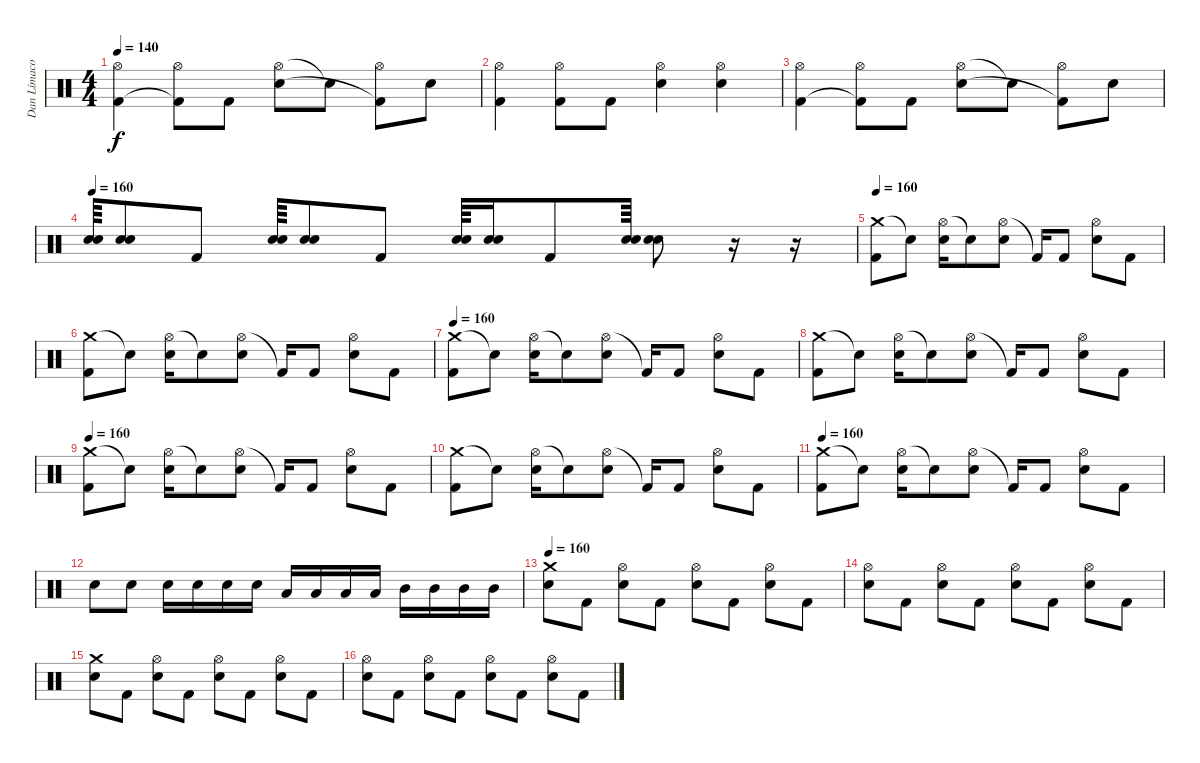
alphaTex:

\track ("Dan Límaco" "Dan Límaco") {instrument percussion}
\staff {score}
\articulation defaults
\ts (4 4)
\tempo 140
\clef neutral
\ks c
("Hi-Hat (open)" "Kick (hit) 2").4{dy f} ("Hi-Hat (open)" "Kick (hit) 2"{t}).8 "Kick (hit) 2".8 ("Hi-Hat (open)" "Snare (hit) 2").8 "Snare (hit) 2"{t}.8 ("Hi-Hat (open)" "Kick (hit) 2"{t}).8 "Snare (hit) 2".8 |
("Hi-Hat (open)" "Kick (hit) 2").4 ("Hi-Hat (open)" "Kick (hit) 2").8 "Kick (hit) 2".8 ("Hi-Hat (open)" "Snare (hit) 2").4 ("Hi-Hat (open)" "Snare (hit) 2").4 |
("Hi-Hat (open)" "Kick (hit) 2").4 ("Hi-Hat (open)" "Kick (hit) 2"{t}).8 "Kick (hit) 2".8 ("Hi-Hat (open)" "Snare (hit) 2").8 "Snare (hit) 2"{t}.8 ("Hi-Hat (open)" "Kick (hit) 2"{t}).8 "Snare (hit) 2".8 |
\tempo 160
("Snare (hit) 2" "Snare (hit) 2").64 ("Snare (hit) 2" "Snare (hit) 2").8 "Kick (hit) 2".8 ("Snare (hit) 2" "Snare (hit) 2").64 ("Snare (hit) 2" "Snare (hit) 2").8 "Kick (hit) 2".8 ("Snare (hit) 2" "Snare (hit) 2").64 ("Snare (hit) 2" "Snare (hit) 2").16 "Kick (hit) 2".8 ("Snare (hit) 2" "Snare (hit) 2").64 ("Snare (hit) 2" "Snare (hit) 2").8 r.16 r.16 |
\tempo 160
("Crash medium (hit)" "Kick (hit) 2").8 "Snare (hit) 2"{t}.8 ("Hi-Hat (open)" "Snare (hit) 2").16 "Snare (hit) 2"{t}.8 ("Hi-Hat (open)" "Snare (hit) 2").8 "Kick (hit) 2"{t}.16 "Kick (hit) 2".8 ("Hi-Hat (open)" "Snare (hit) 2").8 "Kick (hit) 2".8 |
("Crash medium (hit)" "Kick (hit) 2").8 "Snare (hit) 2"{t}.8 ("Hi-Hat (open)" "Snare (hit) 2").16 "Snare (hit) 2"{t}.8 ("Hi-Hat (open)" "Snare (hit) 2").8 "Kick (hit) 2"{t}.16 "Kick (hit) 2".8 ("Hi-Hat (open)" "Snare (hit) 2").8 "Kick (hit) 2".8 |
\tempo 160
("Crash medium (hit)" "Kick (hit) 2").8 "Snare (hit) 2"{t}.8 ("Hi-Hat (open)" "Snare (hit) 2").16 "Snare (hit) 2"{t}.8 ("Hi-Hat (open)" "Snare (hit) 2").8 "Kick (hit) 2"{t}.16 "Kick (hit) 2".8 ("Hi-Hat (open)" "Snare (hit) 2").8 "Kick (hit) 2".8 |
("Crash medium (hit)" "Kick (hit) 2").8 "Snare (hit) 2"{t}.8 ("Hi-Hat (open)" "Snare (hit) 2").16 "Snare (hit) 2"{t}.8 ("Hi-Hat (open)" "Snare (hit) 2").8 "Kick (hit) 2"{t}.16 "Kick (hit) 2".8 ("Hi-Hat (open)" "Snare (hit) 2").8 "Kick (hit) 2".8 |
\tempo 160
("Crash medium (hit)" "Kick (hit) 2").8 "Snare (hit) 2"{t}.8 ("Hi-Hat (open)" "Snare (hit) 2").16 "Snare (hit) 2"{t}.8 ("Hi-Hat (open)" "Snare (hit) 2").8 "Kick (hit) 2"{t}.16 "Kick (hit) 2".8 ("Hi-Hat (open)" "Snare (hit) 2").8 "Kick (hit) 2".8 |
("Crash medium (hit)" "Kick (hit) 2").8 "Snare (hit) 2"{t}.8 ("Hi-Hat (open)" "Snare (hit) 2").16 "Snare (hit) 2"{t}.8 ("Hi-Hat (open)" "Snare (hit) 2").8 "Kick (hit) 2"{t}.16 "Kick (hit) 2".8 ("Hi-Hat (open)" "Snare (hit) 2").8 "Kick (hit) 2".8 |
\tempo 160
("Crash medium (hit)" "Kick (hit) 2").8 "Snare (hit) 2"{t}.8 ("Hi-Hat (open)" "Snare (hit) 2").16 "Snare (hit) 2"{t}.8 ("Hi-Hat (open)" "Snare (hit) 2").8 "Kick (hit) 2"{t}.16 "Kick (hit) 2".8 ("Hi-Hat (open)" "Snare (hit) 2").8 "Kick (hit) 2".8 |
"Snare (hit) 2".8 "Snare (hit) 2".8 "Snare (hit) 2".16 "Snare (hit) 2".16 "Snare (hit) 2".16 "Snare (hit) 2".16 "Low Tom (hit)".16 "Low Tom (hit)".16 "Low Tom (hit)".16 "Low Tom (hit)".16 "Mid Tom (hit)".16 "Mid Tom (hit)".16 "Mid Tom (hit)".16 "Mid Tom (hit)".16 |
\tempo 160
("Crash medium (hit)" "Snare (hit) 2").8 "Kick (hit) 2".8 ("Hi-Hat (open)" "Snare (hit) 2").8 "Kick (hit) 2".8 ("Hi-Hat (open)" "Snare (hit) 2").8 "Kick (hit) 2".8 ("Hi-Hat (open)" "Snare (hit) 2").8 "Kick (hit) 2".8 |
("Hi-Hat (open)" "Snare (hit) 2").8 "Kick (hit) 2".8 ("Hi-Hat (open)" "Snare (hit) 2").8 "Kick (hit) 2".8 ("Hi-Hat (open)" "Snare (hit) 2").8 "Kick (hit) 2".8 ("Hi-Hat (open)" "Snare (hit) 2").8 "Kick (hit) 2".8 |
("Crash medium (hit)" "Snare (hit) 2").8 "Kick (hit) 2".8 ("Hi-Hat (open)" "Snare (hit) 2").8 "Kick (hit) 2".8 ("Hi-Hat (open)" "Snare (hit) 2").8 "Kick (hit) 2".8 ("Hi-Hat (open)" "Snare (hit) 2").8 "Kick (hit) 2".8 |
("Hi-Hat (open)" "Snare (hit) 2").8 "Kick (hit) 2".8 ("Hi-Hat (open)" "Snare (hit) 2").8 "Kick (hit) 2".8 ("Hi-Hat (open)" "Snare (hit) 2").8 "Kick (hit) 2".8 ("Hi-Hat (open)" "Snare (hit) 2").8 "Kick (hit) 2".8
